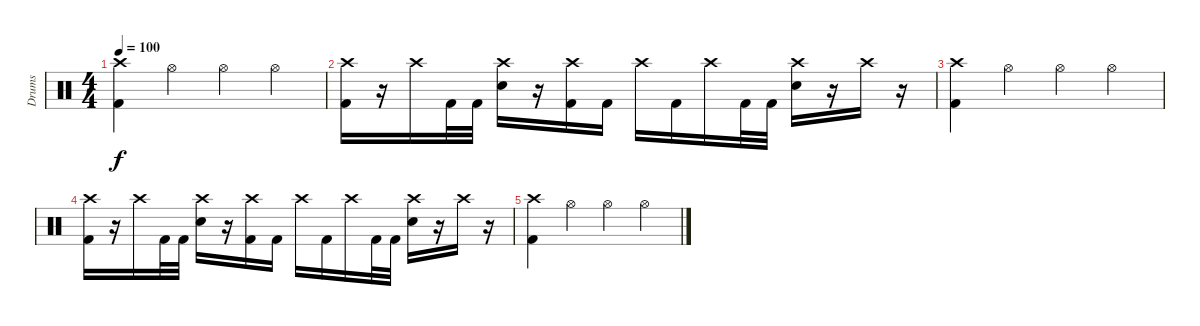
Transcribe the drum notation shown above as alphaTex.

\track ("Drums" "Drums") {instrument percussion}
\staff {score}
\articulation defaults
\ts (4 4)
\tempo 100
\clef neutral
\ks c
("Crash high (hit)" "Kick (hit) 2").4{dy f} "Hi-Hat (open)".4 "Hi-Hat (open)".4 "Hi-Hat (open)".4 |
("Crash high (hit)" "Kick (hit) 2").16 r.16 "Crash high (hit)".16 "Kick (hit) 2".32 "Kick (hit) 2".32 ("Crash high (hit)" "Snare (hit) 2").16 r.16 ("Crash high (hit)" "Kick (hit) 2").16 "Kick (hit) 2".16 "Crash high (hit)".16 "Kick (hit) 2".16 "Crash high (hit)".16 "Kick (hit) 2".32 "Kick (hit) 2".32 ("Crash high (hit)" "Snare (hit) 2").16 r.16 "Crash high (hit)".16 r.16 |
("Crash high (hit)" "Kick (hit) 2").4 "Hi-Hat (open)".4 "Hi-Hat (open)".4 "Hi-Hat (open)".4 |
("Crash high (hit)" "Kick (hit) 2").16 r.16 "Crash high (hit)".16 "Kick (hit) 2".32 "Kick (hit) 2".32 ("Crash high (hit)" "Snare (hit) 2").16 r.16 ("Crash high (hit)" "Kick (hit) 2").16 "Kick (hit) 2".16 "Crash high (hit)".16 "Kick (hit) 2".16 "Crash high (hit)".16 "Kick (hit) 2".32 "Kick (hit) 2".32 ("Crash high (hit)" "Snare (hit) 2").16 r.16 "Crash high (hit)".16 r.16 |
("Crash high (hit)" "Kick (hit) 2").4 "Hi-Hat (open)".4 "Hi-Hat (open)".4 "Hi-Hat (open)".4
